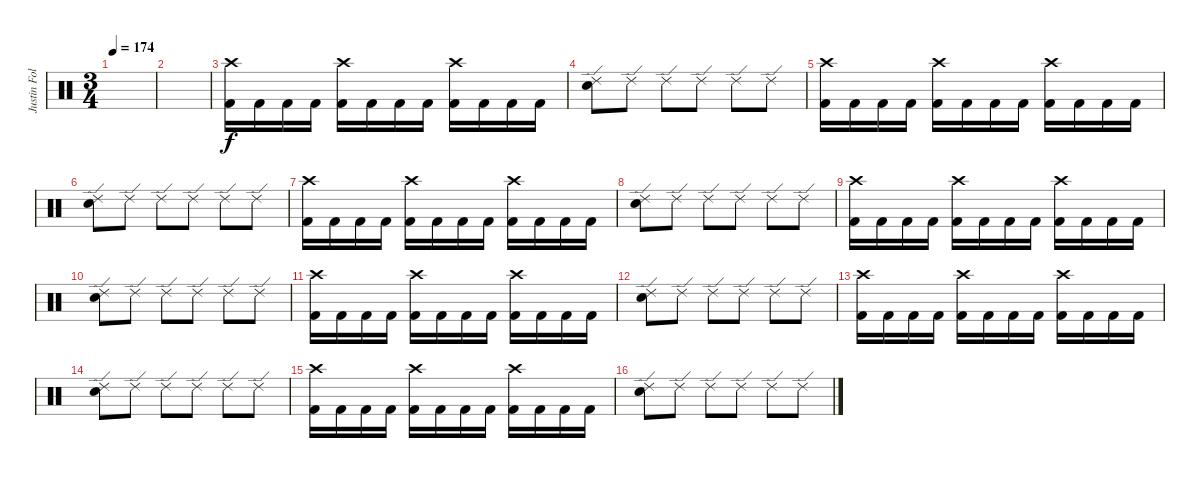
\track ("Justin Foley" "Justin Fol") {instrument percussion}
\staff {score}
\articulation defaults
\ts (3 4)
\tempo 174
\clef neutral
\ks c
|
|
("Crash high (hit)" "Kick (hit) 2").16 "Kick (hit) 2".16 "Kick (hit) 2".16 "Kick (hit) 2".16 ("Crash high (hit)" "Kick (hit) 2").16 "Kick (hit) 2".16 "Kick (hit) 2".16 "Kick (hit) 2".16 ("Crash high (hit)" "Kick (hit) 2").16 "Kick (hit) 2".16 "Kick (hit) 2".16 "Kick (hit) 2".16 |
("Ride (edge) 2" "Electric Snare (hit)").8 "Ride (edge) 2".8 "Ride (edge) 2".8 "Ride (edge) 2".8 "Ride (edge) 2".8 "Ride (edge) 2".8 |
("Crash high (hit)" "Kick (hit) 2").16 "Kick (hit) 2".16 "Kick (hit) 2".16 "Kick (hit) 2".16 ("Crash high (hit)" "Kick (hit) 2").16 "Kick (hit) 2".16 "Kick (hit) 2".16 "Kick (hit) 2".16 ("Crash high (hit)" "Kick (hit) 2").16 "Kick (hit) 2".16 "Kick (hit) 2".16 "Kick (hit) 2".16 |
("Ride (edge) 2" "Electric Snare (hit)").8 "Ride (edge) 2".8 "Ride (edge) 2".8 "Ride (edge) 2".8 "Ride (edge) 2".8 "Ride (edge) 2".8 |
("Crash high (hit)" "Kick (hit) 2").16 "Kick (hit) 2".16 "Kick (hit) 2".16 "Kick (hit) 2".16 ("Crash high (hit)" "Kick (hit) 2").16 "Kick (hit) 2".16 "Kick (hit) 2".16 "Kick (hit) 2".16 ("Crash high (hit)" "Kick (hit) 2").16 "Kick (hit) 2".16 "Kick (hit) 2".16 "Kick (hit) 2".16 |
("Ride (edge) 2" "Electric Snare (hit)").8 "Ride (edge) 2".8 "Ride (edge) 2".8 "Ride (edge) 2".8 "Ride (edge) 2".8 "Ride (edge) 2".8 |
("Crash high (hit)" "Kick (hit) 2").16 "Kick (hit) 2".16 "Kick (hit) 2".16 "Kick (hit) 2".16 ("Crash high (hit)" "Kick (hit) 2").16 "Kick (hit) 2".16 "Kick (hit) 2".16 "Kick (hit) 2".16 ("Crash high (hit)" "Kick (hit) 2").16 "Kick (hit) 2".16 "Kick (hit) 2".16 "Kick (hit) 2".16 |
("Ride (edge) 2" "Electric Snare (hit)").8 "Ride (edge) 2".8 "Ride (edge) 2".8 "Ride (edge) 2".8 "Ride (edge) 2".8 "Ride (edge) 2".8 |
("Crash high (hit)" "Kick (hit) 2").16 "Kick (hit) 2".16 "Kick (hit) 2".16 "Kick (hit) 2".16 ("Crash high (hit)" "Kick (hit) 2").16 "Kick (hit) 2".16 "Kick (hit) 2".16 "Kick (hit) 2".16 ("Crash high (hit)" "Kick (hit) 2").16 "Kick (hit) 2".16 "Kick (hit) 2".16 "Kick (hit) 2".16 |
("Ride (edge) 2" "Electric Snare (hit)").8 "Ride (edge) 2".8 "Ride (edge) 2".8 "Ride (edge) 2".8 "Ride (edge) 2".8 "Ride (edge) 2".8 |
("Crash high (hit)" "Kick (hit) 2").16 "Kick (hit) 2".16 "Kick (hit) 2".16 "Kick (hit) 2".16 ("Crash high (hit)" "Kick (hit) 2").16 "Kick (hit) 2".16 "Kick (hit) 2".16 "Kick (hit) 2".16 ("Crash high (hit)" "Kick (hit) 2").16 "Kick (hit) 2".16 "Kick (hit) 2".16 "Kick (hit) 2".16 |
("Ride (edge) 2" "Electric Snare (hit)").8 "Ride (edge) 2".8 "Ride (edge) 2".8 "Ride (edge) 2".8 "Ride (edge) 2".8 "Ride (edge) 2".8 |
("Crash high (hit)" "Kick (hit) 2").16 "Kick (hit) 2".16 "Kick (hit) 2".16 "Kick (hit) 2".16 ("Crash high (hit)" "Kick (hit) 2").16 "Kick (hit) 2".16 "Kick (hit) 2".16 "Kick (hit) 2".16 ("Crash high (hit)" "Kick (hit) 2").16 "Kick (hit) 2".16 "Kick (hit) 2".16 "Kick (hit) 2".16 |
("Ride (edge) 2" "Electric Snare (hit)").8 "Ride (edge) 2".8 "Ride (edge) 2".8 "Ride (edge) 2".8 "Ride (edge) 2".8 "Ride (edge) 2".8
